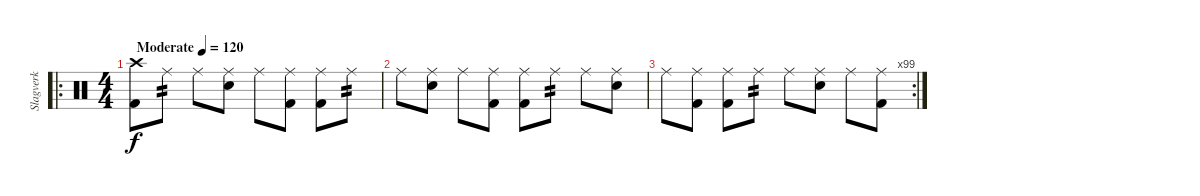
\track ("Slagverk" "Slagverk") {instrument percussion}
\staff {score}
\articulation defaults
\ro
\ts (4 4)
\tempo (120 "Moderate")
\clef neutral
\ks c
("Crash high (hit)" "Kick (hit) 2").8{dy f} "Ride (middle)".8{tp 2} "Ride (middle)".8 ("Ride (middle)" "Electric Snare (hit)").8 "Ride (middle)".8 ("Ride (middle)" "Kick (hit) 2").8 ("Ride (middle)" "Kick (hit) 2").8 "Ride (middle)".8{tp 2} |
"Ride (middle)".8 ("Ride (middle)" "Electric Snare (hit)").8 "Ride (middle)".8 ("Ride (middle)" "Kick (hit) 2").8 ("Ride (middle)" "Kick (hit) 2").8 "Ride (middle)".8{tp 2} "Ride (middle)".8 ("Ride (middle)" "Electric Snare (hit)").8 |
\rc 99 "Ride (middle)".8
("Ride (middle)" "Kick (hit) 2").8 ("Ride (middle)" "Kick (hit) 2").8 "Ride (middle)".8{tp 2} "Ride (middle)".8 ("Ride (middle)" "Electric Snare (hit)").8 "Ride (middle)".8 ("Ride (middle)" "Kick (hit) 2").8
